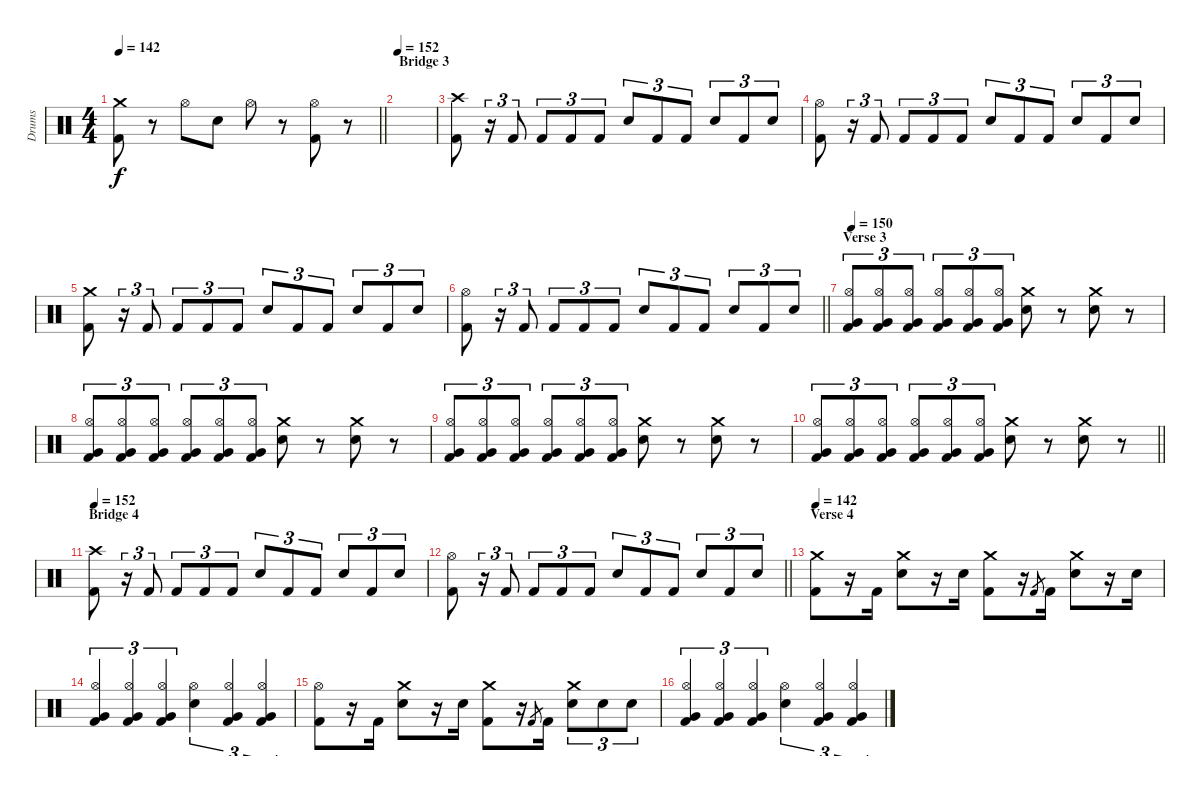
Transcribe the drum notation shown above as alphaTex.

\track ("Drums" "Drums") {instrument percussion}
\staff {score}
\articulation defaults
\ts (4 4)
\tempo 142
\clef neutral
\barLineRight lightlight
\ks c
("Crash medium (hit)" "Kick (hit) 2").8{dy f} r.8 "Hi-Hat (open)".8 "Electric Snare (hit)".8 "Hi-Hat (open)".8 r.8 ("Hi-Hat (open)" "Kick (hit) 2").8 r.8 |
\section ("" "Bridge 3")
\tempo 152
|
("Crash high (hit)" "Kick (hit) 2").8 r.16{tu (3 2)} "Kick (hit) 2".8{tu (3 2)} "Kick (hit) 2".8{tu (3 2)} "Kick (hit) 2".8{tu (3 2)} "Kick (hit) 2".8{tu (3 2)} "Electric Snare (hit)".8{tu (3 2)} "Kick (hit) 2".8{tu (3 2)} "Kick (hit) 2".8{tu (3 2)} "Electric Snare (hit)".8{tu (3 2)} "Kick (hit) 2".8{tu (3 2)} "Electric Snare (hit)".8{tu (3 2)} |
("Hi-Hat (open)" "Kick (hit) 2").8 r.16{tu (3 2)} "Kick (hit) 2".8{tu (3 2)} "Kick (hit) 2".8{tu (3 2)} "Kick (hit) 2".8{tu (3 2)} "Kick (hit) 2".8{tu (3 2)} "Electric Snare (hit)".8{tu (3 2)} "Kick (hit) 2".8{tu (3 2)} "Kick (hit) 2".8{tu (3 2)} "Electric Snare (hit)".8{tu (3 2)} "Kick (hit) 2".8{tu (3 2)} "Electric Snare (hit)".8{tu (3 2)} |
("Crash medium (hit)" "Kick (hit) 2").8 r.16{tu (3 2)} "Kick (hit) 2".8{tu (3 2)} "Kick (hit) 2".8{tu (3 2)} "Kick (hit) 2".8{tu (3 2)} "Kick (hit) 2".8{tu (3 2)} "Electric Snare (hit)".8{tu (3 2)} "Kick (hit) 2".8{tu (3 2)} "Kick (hit) 2".8{tu (3 2)} "Electric Snare (hit)".8{tu (3 2)} "Kick (hit) 2".8{tu (3 2)} "Electric Snare (hit)".8{tu (3 2)} |
\barLineRight lightlight
("Hi-Hat (open)" "Kick (hit) 2").8 r.16{tu (3 2)} "Kick (hit) 2".8{tu (3 2)} "Kick (hit) 2".8{tu (3 2)} "Kick (hit) 2".8{tu (3 2)} "Kick (hit) 2".8{tu (3 2)} "Electric Snare (hit)".8{tu (3 2)} "Kick (hit) 2".8{tu (3 2)} "Kick (hit) 2".8{tu (3 2)} "Electric Snare (hit)".8{tu (3 2)} "Kick (hit) 2".8{tu (3 2)} "Electric Snare (hit)".8{tu (3 2)} |
\section ("" "Verse 3")
\tempo 150
("Hi-Hat (open)" "Very Low Tom (hit)" "Kick (hit) 2").8{tu (3 2)} ("Hi-Hat (open)" "Very Low Tom (hit)" "Kick (hit) 2").8{tu (3 2)} ("Hi-Hat (open)" "Very Low Tom (hit)" "Kick (hit) 2").8{tu (3 2)} ("Hi-Hat (open)" "Very Low Tom (hit)" "Kick (hit) 2").8{tu (3 2)} ("Hi-Hat (open)" "Very Low Tom (hit)" "Kick (hit) 2").8{tu (3 2)} ("Hi-Hat (open)" "Very Low Tom (hit)" "Kick (hit) 2").8{tu (3 2)} ("Crash medium (hit)" "Electric Snare (hit)").8 r.8 ("Crash medium (hit)" "Electric Snare (hit)").8 r.8 |
("Hi-Hat (open)" "Very Low Tom (hit)" "Kick (hit) 2").8{tu (3 2)} ("Hi-Hat (open)" "Very Low Tom (hit)" "Kick (hit) 2").8{tu (3 2)} ("Hi-Hat (open)" "Very Low Tom (hit)" "Kick (hit) 2").8{tu (3 2)} ("Hi-Hat (open)" "Very Low Tom (hit)" "Kick (hit) 2").8{tu (3 2)} ("Hi-Hat (open)" "Very Low Tom (hit)" "Kick (hit) 2").8{tu (3 2)} ("Hi-Hat (open)" "Very Low Tom (hit)" "Kick (hit) 2").8{tu (3 2)} ("Crash medium (hit)" "Electric Snare (hit)").8 r.8 ("Crash medium (hit)" "Electric Snare (hit)").8 r.8 |
("Hi-Hat (open)" "Very Low Tom (hit)" "Kick (hit) 2").8{tu (3 2)} ("Hi-Hat (open)" "Very Low Tom (hit)" "Kick (hit) 2").8{tu (3 2)} ("Hi-Hat (open)" "Very Low Tom (hit)" "Kick (hit) 2").8{tu (3 2)} ("Hi-Hat (open)" "Very Low Tom (hit)" "Kick (hit) 2").8{tu (3 2)} ("Hi-Hat (open)" "Very Low Tom (hit)" "Kick (hit) 2").8{tu (3 2)} ("Hi-Hat (open)" "Very Low Tom (hit)" "Kick (hit) 2").8{tu (3 2)} ("Crash medium (hit)" "Electric Snare (hit)").8 r.8 ("Crash medium (hit)" "Electric Snare (hit)").8 r.8 |
\barLineRight lightlight
("Hi-Hat (open)" "Very Low Tom (hit)" "Kick (hit) 2").8{tu (3 2)} ("Hi-Hat (open)" "Very Low Tom (hit)" "Kick (hit) 2").8{tu (3 2)} ("Hi-Hat (open)" "Very Low Tom (hit)" "Kick (hit) 2").8{tu (3 2)} ("Hi-Hat (open)" "Very Low Tom (hit)" "Kick (hit) 2").8{tu (3 2)} ("Hi-Hat (open)" "Very Low Tom (hit)" "Kick (hit) 2").8{tu (3 2)} ("Hi-Hat (open)" "Very Low Tom (hit)" "Kick (hit) 2").8{tu (3 2)} ("Crash medium (hit)" "Electric Snare (hit)").8 r.8 ("Crash medium (hit)" "Electric Snare (hit)").8 r.8 |
\section ("" "Bridge 4")
\tempo 152
("Crash high (hit)" "Kick (hit) 2").8 r.16{tu (3 2)} "Kick (hit) 2".8{tu (3 2)} "Kick (hit) 2".8{tu (3 2)} "Kick (hit) 2".8{tu (3 2)} "Kick (hit) 2".8{tu (3 2)} "Electric Snare (hit)".8{tu (3 2)} "Kick (hit) 2".8{tu (3 2)} "Kick (hit) 2".8{tu (3 2)} "Electric Snare (hit)".8{tu (3 2)} "Kick (hit) 2".8{tu (3 2)} "Electric Snare (hit)".8{tu (3 2)} |
\barLineRight lightlight
("Hi-Hat (open)" "Kick (hit) 2").8 r.16{tu (3 2)} "Kick (hit) 2".8{tu (3 2)} "Kick (hit) 2".8{tu (3 2)} "Kick (hit) 2".8{tu (3 2)} "Kick (hit) 2".8{tu (3 2)} "Electric Snare (hit)".8{tu (3 2)} "Kick (hit) 2".8{tu (3 2)} "Kick (hit) 2".8{tu (3 2)} "Electric Snare (hit)".8{tu (3 2)} "Kick (hit) 2".8{tu (3 2)} "Electric Snare (hit)".8{tu (3 2)} |
\section ("" "Verse 4")
\tempo 142
("Crash medium (hit)" "Kick (hit) 2").8 r.16 "Kick (hit) 2".16 ("Crash medium (hit)" "Electric Snare (hit)").8 r.16 "Electric Snare (hit)".16 ("Crash medium (hit)" "Kick (hit) 2").8 r.16 "Kick (hit) 2".8{gr} "Kick (hit) 2".16 ("Crash medium (hit)" "Electric Snare (hit)").8 r.16 "Electric Snare (hit)".16 |
("Hi-Hat (open)" "Very Low Tom (hit)" "Kick (hit) 2").4{tu (3 2)} ("Hi-Hat (open)" "Very Low Tom (hit)" "Kick (hit) 2").4{tu (3 2)} ("Hi-Hat (open)" "Very Low Tom (hit)" "Kick (hit) 2").4{tu (3 2)} ("Hi-Hat (open)" "Electric Snare (hit)").4{tu (3 2)} ("Hi-Hat (open)" "Very Low Tom (hit)" "Kick (hit) 2").4{tu (3 2)} ("Hi-Hat (open)" "Very Low Tom (hit)" "Kick (hit) 2").4{tu (3 2)} |
("Hi-Hat (open)" "Kick (hit) 2").8 r.16 "Kick (hit) 2".16 ("Crash medium (hit)" "Electric Snare (hit)").8 r.16 "Electric Snare (hit)".16 ("Crash medium (hit)" "Kick (hit) 2").8 r.16 "Kick (hit) 2".8{gr} "Kick (hit) 2".16 ("Crash medium (hit)" "Electric Snare (hit)").8{tu (3 2)} "Electric Snare (hit)".8{tu (3 2)} "Electric Snare (hit)".8{tu (3 2)} |
("Hi-Hat (open)" "Very Low Tom (hit)" "Kick (hit) 2").4{tu (3 2)} ("Hi-Hat (open)" "Very Low Tom (hit)" "Kick (hit) 2").4{tu (3 2)} ("Hi-Hat (open)" "Very Low Tom (hit)" "Kick (hit) 2").4{tu (3 2)} ("Hi-Hat (open)" "Electric Snare (hit)").4{tu (3 2)} ("Hi-Hat (open)" "Very Low Tom (hit)" "Kick (hit) 2").4{tu (3 2)} ("Hi-Hat (open)" "Very Low Tom (hit)" "Kick (hit) 2").4{tu (3 2)}
